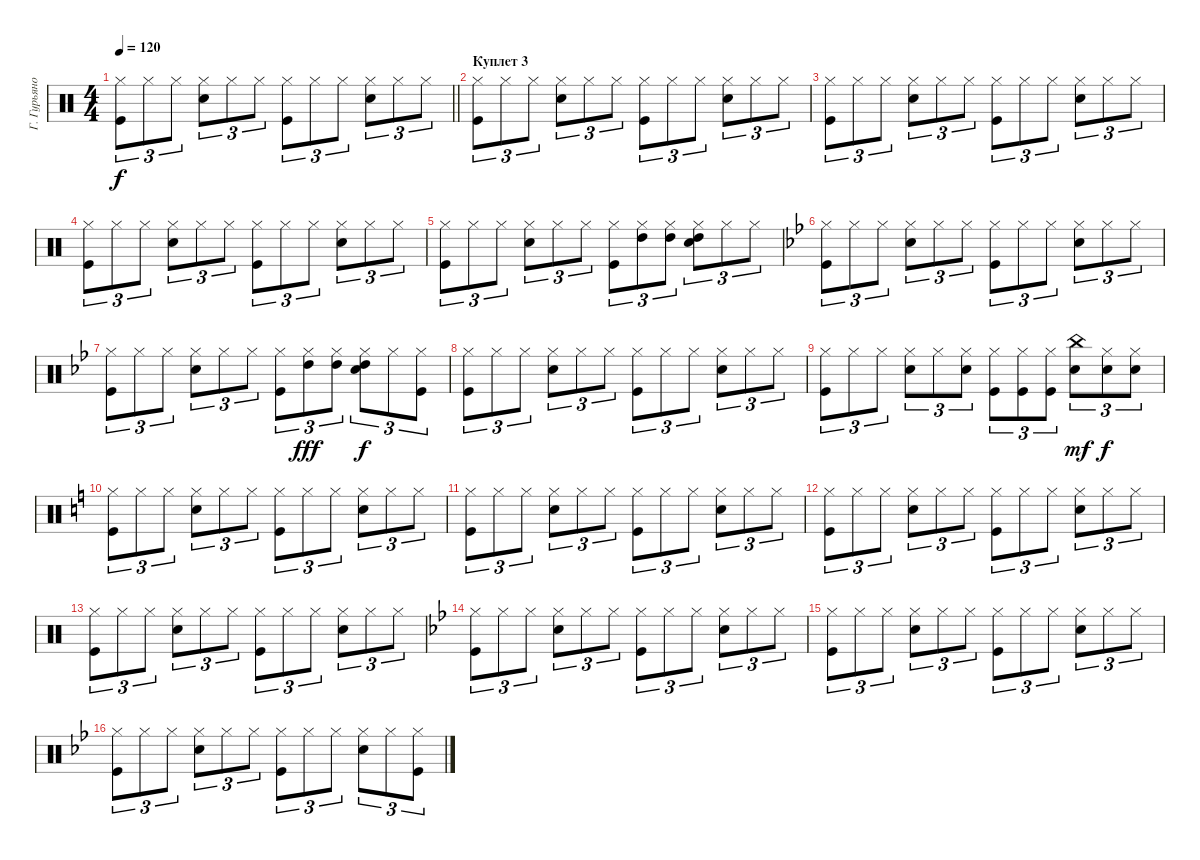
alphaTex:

\track ("Г. Гурьянов" "Г. Гурьяно") {instrument percussion}
\staff
\articulation defaults
\ts (4 4)
\tempo 120
\clef neutral
\barLineRight lightlight
\ks c
("Hi-Hat (closed)" "Kick (hit)").8{tu (3 2) dy f} "Hi-Hat (closed)".8{tu (3 2)} "Hi-Hat (closed)".8{tu (3 2)} ("Hi-Hat (closed)" "Snare (hit) 2").8{tu (3 2)} "Hi-Hat (closed)".8{tu (3 2)} "Hi-Hat (closed)".8{tu (3 2)} ("Hi-Hat (closed)" "Kick (hit)").8{tu (3 2)} "Hi-Hat (closed)".8{tu (3 2)} "Hi-Hat (closed)".8{tu (3 2)} ("Hi-Hat (closed)" "Snare (hit) 2").8{tu (3 2)} "Hi-Hat (closed)".8{tu (3 2)} "Hi-Hat (closed)".8{tu (3 2)} |
\section ("" "Куплет 3")
("Hi-Hat (closed)" "Kick (hit)").8{tu (3 2)} "Hi-Hat (closed)".8{tu (3 2)} "Hi-Hat (closed)".8{tu (3 2)} ("Hi-Hat (closed)" "Snare (hit) 2").8{tu (3 2)} "Hi-Hat (closed)".8{tu (3 2)} "Hi-Hat (closed)".8{tu (3 2)} ("Hi-Hat (closed)" "Kick (hit)").8{tu (3 2)} "Hi-Hat (closed)".8{tu (3 2)} "Hi-Hat (closed)".8{tu (3 2)} ("Hi-Hat (closed)" "Snare (hit) 2").8{tu (3 2)} "Hi-Hat (closed)".8{tu (3 2)} "Hi-Hat (closed)".8{tu (3 2)} |
("Hi-Hat (closed)" "Kick (hit)").8{tu (3 2)} "Hi-Hat (closed)".8{tu (3 2)} "Hi-Hat (closed)".8{tu (3 2)} ("Hi-Hat (closed)" "Snare (hit) 2").8{tu (3 2)} "Hi-Hat (closed)".8{tu (3 2)} "Hi-Hat (closed)".8{tu (3 2)} ("Hi-Hat (closed)" "Kick (hit)").8{tu (3 2)} "Hi-Hat (closed)".8{tu (3 2)} "Hi-Hat (closed)".8{tu (3 2)} ("Hi-Hat (closed)" "Snare (hit) 2").8{tu (3 2)} "Hi-Hat (closed)".8{tu (3 2)} "Hi-Hat (closed)".8{tu (3 2)} |
("Hi-Hat (closed)" "Kick (hit)").8{tu (3 2)} "Hi-Hat (closed)".8{tu (3 2)} "Hi-Hat (closed)".8{tu (3 2)} ("Hi-Hat (closed)" "Snare (hit) 2").8{tu (3 2)} "Hi-Hat (closed)".8{tu (3 2)} "Hi-Hat (closed)".8{tu (3 2)} ("Hi-Hat (closed)" "Kick (hit)").8{tu (3 2)} "Hi-Hat (closed)".8{tu (3 2)} "Hi-Hat (closed)".8{tu (3 2)} ("Hi-Hat (closed)" "Snare (hit) 2").8{tu (3 2)} "Hi-Hat (closed)".8{tu (3 2)} "Hi-Hat (closed)".8{tu (3 2)} |
("Hi-Hat (closed)" "Kick (hit)").8{tu (3 2)} "Hi-Hat (closed)".8{tu (3 2)} "Hi-Hat (closed)".8{tu (3 2)} ("Hi-Hat (closed)" "Snare (hit) 2").8{tu (3 2)} "Hi-Hat (closed)".8{tu (3 2)} "Hi-Hat (closed)".8{tu (3 2)} ("Hi-Hat (closed)" "Kick (hit)").8{tu (3 2)} ("Hi-Hat (closed)" "High Tom (hit)").8{tu (3 2)} ("Hi-Hat (closed)" "High Tom (hit)").8{tu (3 2)} ("Hi-Hat (closed)" "Snare (hit) 2" "High Tom (hit)").8{tu (3 2)} "Hi-Hat (closed)".8{tu (3 2)} "Hi-Hat (closed)".8{tu (3 2)} |
\ks gminor
("Hi-Hat (closed)" "Kick (hit)").8{tu (3 2)} "Hi-Hat (closed)".8{tu (3 2)} "Hi-Hat (closed)".8{tu (3 2)} ("Hi-Hat (closed)" "Snare (hit) 2").8{tu (3 2)} "Hi-Hat (closed)".8{tu (3 2)} "Hi-Hat (closed)".8{tu (3 2)} ("Hi-Hat (closed)" "Kick (hit)").8{tu (3 2)} "Hi-Hat (closed)".8{tu (3 2)} "Hi-Hat (closed)".8{tu (3 2)} ("Hi-Hat (closed)" "Snare (hit) 2").8{tu (3 2)} "Hi-Hat (closed)".8{tu (3 2)} "Hi-Hat (closed)".8{tu (3 2)} |
("Hi-Hat (closed)" "Kick (hit)").8{tu (3 2)} "Hi-Hat (closed)".8{tu (3 2)} "Hi-Hat (closed)".8{tu (3 2)} ("Hi-Hat (closed)" "Snare (hit) 2").8{tu (3 2)} "Hi-Hat (closed)".8{tu (3 2)} "Hi-Hat (closed)".8{tu (3 2)} ("Hi-Hat (closed)" "Kick (hit)").8{tu (3 2)} ("Hi-Hat (closed)" "High Tom (hit)").8{tu (3 2) dy fff} ("Hi-Hat (closed)" "High Tom (hit)").8{tu (3 2)} ("Hi-Hat (closed)" "Snare (hit) 2" "High Tom (hit)").8{tu (3 2) dy f} "Hi-Hat (closed)".8{tu (3 2)} ("Hi-Hat (closed)" "Kick (hit)").8{tu (3 2)} |
("Hi-Hat (closed)" "Kick (hit)").8{tu (3 2)} "Hi-Hat (closed)".8{tu (3 2)} "Hi-Hat (closed)".8{tu (3 2)} ("Hi-Hat (closed)" "Snare (hit) 2").8{tu (3 2)} "Hi-Hat (closed)".8{tu (3 2)} "Hi-Hat (closed)".8{tu (3 2)} ("Hi-Hat (closed)" "Kick (hit)").8{tu (3 2)} "Hi-Hat (closed)".8{tu (3 2)} "Hi-Hat (closed)".8{tu (3 2)} ("Hi-Hat (closed)" "Snare (hit) 2").8{tu (3 2)} "Hi-Hat (closed)".8{tu (3 2)} "Hi-Hat (closed)".8{tu (3 2)} |
("Hi-Hat (closed)" "Kick (hit)").8{tu (3 2)} "Hi-Hat (closed)".8{tu (3 2)} "Hi-Hat (closed)".8{tu (3 2)} ("Hi-Hat (closed)" "Snare (hit) 2").8{tu (3 2)} "Hi-Hat (closed)".8{tu (3 2)} ("Hi-Hat (closed)" "Snare (hit) 2").8{tu (3 2)} ("Hi-Hat (closed)" "Kick (hit)").8{tu (3 2)} ("Hi-Hat (closed)" "Kick (hit)").8{tu (3 2)} ("Hi-Hat (closed)" "Kick (hit)").8{tu (3 2)} ("Snare (hit) 2" "China (hit)").8{tu (3 2) dy mf} ("Hi-Hat (closed)" "Snare (hit) 2").8{tu (3 2) dy f} ("Hi-Hat (closed)" "Snare (hit) 2").8{tu (3 2)} |
\ks c
("Hi-Hat (closed)" "Kick (hit)").8{tu (3 2)} "Hi-Hat (closed)".8{tu (3 2)} "Hi-Hat (closed)".8{tu (3 2)} ("Hi-Hat (closed)" "Snare (hit) 2").8{tu (3 2)} "Hi-Hat (closed)".8{tu (3 2)} "Hi-Hat (closed)".8{tu (3 2)} ("Hi-Hat (closed)" "Kick (hit)").8{tu (3 2)} "Hi-Hat (closed)".8{tu (3 2)} "Hi-Hat (closed)".8{tu (3 2)} ("Hi-Hat (closed)" "Snare (hit) 2").8{tu (3 2)} "Hi-Hat (closed)".8{tu (3 2)} "Hi-Hat (closed)".8{tu (3 2)} |
("Hi-Hat (closed)" "Kick (hit)").8{tu (3 2)} "Hi-Hat (closed)".8{tu (3 2)} "Hi-Hat (closed)".8{tu (3 2)} ("Hi-Hat (closed)" "Snare (hit) 2").8{tu (3 2)} "Hi-Hat (closed)".8{tu (3 2)} "Hi-Hat (closed)".8{tu (3 2)} ("Hi-Hat (closed)" "Kick (hit)").8{tu (3 2)} "Hi-Hat (closed)".8{tu (3 2)} "Hi-Hat (closed)".8{tu (3 2)} ("Hi-Hat (closed)" "Snare (hit) 2").8{tu (3 2)} "Hi-Hat (closed)".8{tu (3 2)} "Hi-Hat (closed)".8{tu (3 2)} |
("Hi-Hat (closed)" "Kick (hit)").8{tu (3 2)} "Hi-Hat (closed)".8{tu (3 2)} "Hi-Hat (closed)".8{tu (3 2)} ("Hi-Hat (closed)" "Snare (hit) 2").8{tu (3 2)} "Hi-Hat (closed)".8{tu (3 2)} "Hi-Hat (closed)".8{tu (3 2)} ("Hi-Hat (closed)" "Kick (hit)").8{tu (3 2)} "Hi-Hat (closed)".8{tu (3 2)} "Hi-Hat (closed)".8{tu (3 2)} ("Hi-Hat (closed)" "Snare (hit) 2").8{tu (3 2)} "Hi-Hat (closed)".8{tu (3 2)} "Hi-Hat (closed)".8{tu (3 2)} |
("Hi-Hat (closed)" "Kick (hit)").8{tu (3 2)} "Hi-Hat (closed)".8{tu (3 2)} "Hi-Hat (closed)".8{tu (3 2)} ("Hi-Hat (closed)" "Snare (hit) 2").8{tu (3 2)} "Hi-Hat (closed)".8{tu (3 2)} "Hi-Hat (closed)".8{tu (3 2)} ("Hi-Hat (closed)" "Kick (hit)").8{tu (3 2)} "Hi-Hat (closed)".8{tu (3 2)} "Hi-Hat (closed)".8{tu (3 2)} ("Hi-Hat (closed)" "Snare (hit) 2").8{tu (3 2)} "Hi-Hat (closed)".8{tu (3 2)} "Hi-Hat (closed)".8{tu (3 2)} |
\ks gminor
("Hi-Hat (closed)" "Kick (hit)").8{tu (3 2)} "Hi-Hat (closed)".8{tu (3 2)} "Hi-Hat (closed)".8{tu (3 2)} ("Hi-Hat (closed)" "Snare (hit) 2").8{tu (3 2)} "Hi-Hat (closed)".8{tu (3 2)} "Hi-Hat (closed)".8{tu (3 2)} ("Hi-Hat (closed)" "Kick (hit)").8{tu (3 2)} "Hi-Hat (closed)".8{tu (3 2)} "Hi-Hat (closed)".8{tu (3 2)} ("Hi-Hat (closed)" "Snare (hit) 2").8{tu (3 2)} "Hi-Hat (closed)".8{tu (3 2)} "Hi-Hat (closed)".8{tu (3 2)} |
("Hi-Hat (closed)" "Kick (hit)").8{tu (3 2)} "Hi-Hat (closed)".8{tu (3 2)} "Hi-Hat (closed)".8{tu (3 2)} ("Hi-Hat (closed)" "Snare (hit) 2").8{tu (3 2)} "Hi-Hat (closed)".8{tu (3 2)} "Hi-Hat (closed)".8{tu (3 2)} ("Hi-Hat (closed)" "Kick (hit)").8{tu (3 2)} "Hi-Hat (closed)".8{tu (3 2)} "Hi-Hat (closed)".8{tu (3 2)} ("Hi-Hat (closed)" "Snare (hit) 2").8{tu (3 2)} "Hi-Hat (closed)".8{tu (3 2)} "Hi-Hat (closed)".8{tu (3 2)} |
("Hi-Hat (closed)" "Kick (hit)").8{tu (3 2)} "Hi-Hat (closed)".8{tu (3 2)} "Hi-Hat (closed)".8{tu (3 2)} ("Hi-Hat (closed)" "Snare (hit) 2").8{tu (3 2)} "Hi-Hat (closed)".8{tu (3 2)} "Hi-Hat (closed)".8{tu (3 2)} ("Hi-Hat (closed)" "Kick (hit)").8{tu (3 2)} "Hi-Hat (closed)".8{tu (3 2)} "Hi-Hat (closed)".8{tu (3 2)} ("Hi-Hat (closed)" "Snare (hit) 2").8{tu (3 2)} "Hi-Hat (closed)".8{tu (3 2)} ("Hi-Hat (closed)" "Kick (hit)").8{tu (3 2)}
